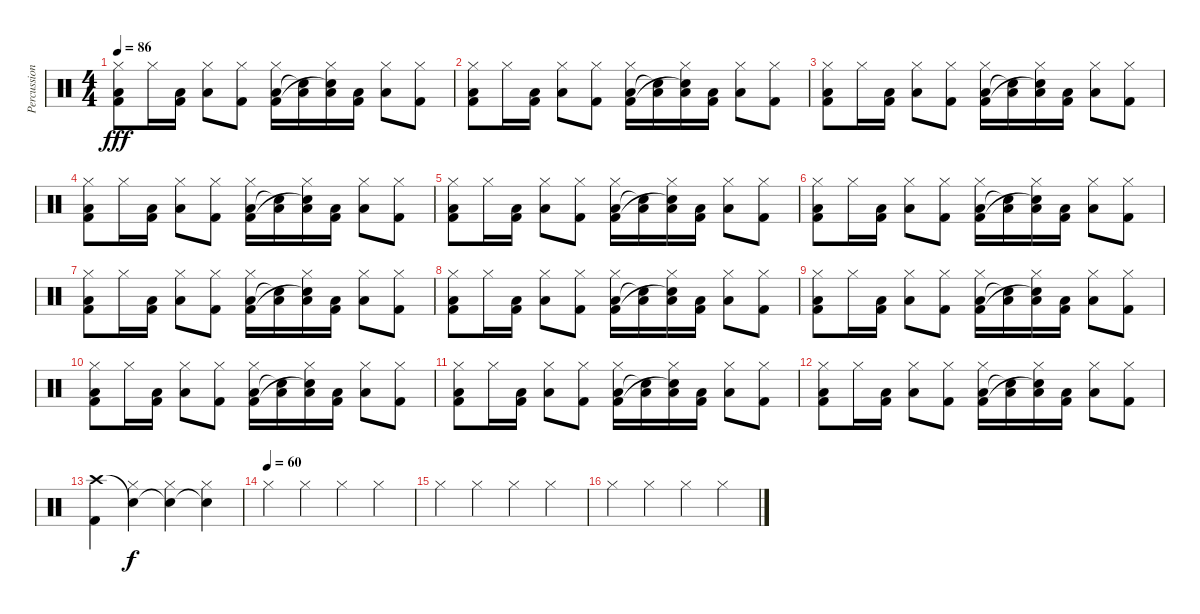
\track ("Percussion" "Percussion") {instrument percussion}
\staff {score}
\articulation defaults
\ts (4 4)
\tempo 86
\clef neutral
\ks c
("Hi-Hat (closed)" "Low Tom (hit)" "Kick (hit) 2").8{dy fff} "Hi-Hat (closed)".16 ("Low Tom (hit)" "Kick (hit) 2").16 ("Hi-Hat (closed)" "Low Tom (hit)").8 ("Hi-Hat (closed)" "Kick (hit) 2").8 ("Hi-Hat (closed)" "Low Tom (hit)" "Kick (hit) 2").16 ("Low Tom (hit)" "Snare (hit)"{t}).16 ("Hi-Hat (closed)" "Low Tom (hit)" "Snare (hit)"{t}).16 ("Low Tom (hit)" "Kick (hit) 2").16 ("Hi-Hat (closed)" "Low Tom (hit)").8 ("Hi-Hat (closed)" "Kick (hit) 2").8 |
("Hi-Hat (closed)" "Low Tom (hit)" "Kick (hit) 2").8 "Hi-Hat (closed)".16 ("Low Tom (hit)" "Kick (hit) 2").16 ("Hi-Hat (closed)" "Low Tom (hit)").8 ("Hi-Hat (closed)" "Kick (hit) 2").8 ("Hi-Hat (closed)" "Low Tom (hit)" "Kick (hit) 2").16 ("Low Tom (hit)" "Snare (hit)"{t}).16 ("Hi-Hat (closed)" "Low Tom (hit)" "Snare (hit)"{t}).16 ("Low Tom (hit)" "Kick (hit) 2").16 ("Hi-Hat (closed)" "Low Tom (hit)").8 ("Hi-Hat (closed)" "Kick (hit) 2").8 |
("Hi-Hat (closed)" "Low Tom (hit)" "Kick (hit) 2").8 "Hi-Hat (closed)".16 ("Low Tom (hit)" "Kick (hit) 2").16 ("Hi-Hat (closed)" "Low Tom (hit)").8 ("Hi-Hat (closed)" "Kick (hit) 2").8 ("Hi-Hat (closed)" "Low Tom (hit)" "Kick (hit) 2").16 ("Low Tom (hit)" "Snare (hit)"{t}).16 ("Hi-Hat (closed)" "Low Tom (hit)" "Snare (hit)"{t}).16 ("Low Tom (hit)" "Kick (hit) 2").16 ("Hi-Hat (closed)" "Low Tom (hit)").8 ("Hi-Hat (closed)" "Kick (hit) 2").8 |
("Hi-Hat (closed)" "Low Tom (hit)" "Kick (hit) 2").8 "Hi-Hat (closed)".16 ("Low Tom (hit)" "Kick (hit) 2").16 ("Hi-Hat (closed)" "Low Tom (hit)").8 ("Hi-Hat (closed)" "Kick (hit) 2").8 ("Hi-Hat (closed)" "Low Tom (hit)" "Kick (hit) 2").16 ("Low Tom (hit)" "Snare (hit)"{t}).16 ("Hi-Hat (closed)" "Low Tom (hit)" "Snare (hit)"{t}).16 ("Low Tom (hit)" "Kick (hit) 2").16 ("Hi-Hat (closed)" "Low Tom (hit)").8 ("Hi-Hat (closed)" "Kick (hit) 2").8 |
("Hi-Hat (closed)" "Low Tom (hit)" "Kick (hit) 2").8 "Hi-Hat (closed)".16 ("Low Tom (hit)" "Kick (hit) 2").16 ("Hi-Hat (closed)" "Low Tom (hit)").8 ("Hi-Hat (closed)" "Kick (hit) 2").8 ("Hi-Hat (closed)" "Low Tom (hit)" "Kick (hit) 2").16 ("Low Tom (hit)" "Snare (hit)"{t}).16 ("Hi-Hat (closed)" "Low Tom (hit)" "Snare (hit)"{t}).16 ("Low Tom (hit)" "Kick (hit) 2").16 ("Hi-Hat (closed)" "Low Tom (hit)").8 ("Hi-Hat (closed)" "Kick (hit) 2").8 |
("Hi-Hat (closed)" "Low Tom (hit)" "Kick (hit) 2").8 "Hi-Hat (closed)".16 ("Low Tom (hit)" "Kick (hit) 2").16 ("Hi-Hat (closed)" "Low Tom (hit)").8 ("Hi-Hat (closed)" "Kick (hit) 2").8 ("Hi-Hat (closed)" "Low Tom (hit)" "Kick (hit) 2").16 ("Low Tom (hit)" "Snare (hit)"{t}).16 ("Hi-Hat (closed)" "Low Tom (hit)" "Snare (hit)"{t}).16 ("Low Tom (hit)" "Kick (hit) 2").16 ("Hi-Hat (closed)" "Low Tom (hit)").8 ("Hi-Hat (closed)" "Kick (hit) 2").8 |
("Hi-Hat (closed)" "Low Tom (hit)" "Kick (hit) 2").8 "Hi-Hat (closed)".16 ("Low Tom (hit)" "Kick (hit) 2").16 ("Hi-Hat (closed)" "Low Tom (hit)").8 ("Hi-Hat (closed)" "Kick (hit) 2").8 ("Hi-Hat (closed)" "Low Tom (hit)" "Kick (hit) 2").16 ("Low Tom (hit)" "Snare (hit)"{t}).16 ("Hi-Hat (closed)" "Low Tom (hit)" "Snare (hit)"{t}).16 ("Low Tom (hit)" "Kick (hit) 2").16 ("Hi-Hat (closed)" "Low Tom (hit)").8 ("Hi-Hat (closed)" "Kick (hit) 2").8 |
("Hi-Hat (closed)" "Low Tom (hit)" "Kick (hit) 2").8 "Hi-Hat (closed)".16 ("Low Tom (hit)" "Kick (hit) 2").16 ("Hi-Hat (closed)" "Low Tom (hit)").8 ("Hi-Hat (closed)" "Kick (hit) 2").8 ("Hi-Hat (closed)" "Low Tom (hit)" "Kick (hit) 2").16 ("Low Tom (hit)" "Snare (hit)"{t}).16 ("Hi-Hat (closed)" "Low Tom (hit)" "Snare (hit)"{t}).16 ("Low Tom (hit)" "Kick (hit) 2").16 ("Hi-Hat (closed)" "Low Tom (hit)").8 ("Hi-Hat (closed)" "Kick (hit) 2").8 |
("Hi-Hat (closed)" "Low Tom (hit)" "Kick (hit) 2").8 "Hi-Hat (closed)".16 ("Low Tom (hit)" "Kick (hit) 2").16 ("Hi-Hat (closed)" "Low Tom (hit)").8 ("Hi-Hat (closed)" "Kick (hit) 2").8 ("Hi-Hat (closed)" "Low Tom (hit)" "Kick (hit) 2").16 ("Low Tom (hit)" "Snare (hit)"{t}).16 ("Hi-Hat (closed)" "Low Tom (hit)" "Snare (hit)"{t}).16 ("Low Tom (hit)" "Kick (hit) 2").16 ("Hi-Hat (closed)" "Low Tom (hit)").8 ("Hi-Hat (closed)" "Kick (hit) 2").8 |
("Hi-Hat (closed)" "Low Tom (hit)" "Kick (hit) 2").8 "Hi-Hat (closed)".16 ("Low Tom (hit)" "Kick (hit) 2").16 ("Hi-Hat (closed)" "Low Tom (hit)").8 ("Hi-Hat (closed)" "Kick (hit) 2").8 ("Hi-Hat (closed)" "Low Tom (hit)" "Kick (hit) 2").16 ("Low Tom (hit)" "Snare (hit)"{t}).16 ("Hi-Hat (closed)" "Low Tom (hit)" "Snare (hit)"{t}).16 ("Low Tom (hit)" "Kick (hit) 2").16 ("Hi-Hat (closed)" "Low Tom (hit)").8 ("Hi-Hat (closed)" "Kick (hit) 2").8 |
("Hi-Hat (closed)" "Low Tom (hit)" "Kick (hit) 2").8 "Hi-Hat (closed)".16 ("Low Tom (hit)" "Kick (hit) 2").16 ("Hi-Hat (closed)" "Low Tom (hit)").8 ("Hi-Hat (closed)" "Kick (hit) 2").8 ("Hi-Hat (closed)" "Low Tom (hit)" "Kick (hit) 2").16 ("Low Tom (hit)" "Snare (hit)"{t}).16 ("Hi-Hat (closed)" "Low Tom (hit)" "Snare (hit)"{t}).16 ("Low Tom (hit)" "Kick (hit) 2").16 ("Hi-Hat (closed)" "Low Tom (hit)").8 ("Hi-Hat (closed)" "Kick (hit) 2").8 |
("Hi-Hat (closed)" "Low Tom (hit)" "Kick (hit) 2").8 "Hi-Hat (closed)".16 ("Low Tom (hit)" "Kick (hit) 2").16 ("Hi-Hat (closed)" "Low Tom (hit)").8 ("Hi-Hat (closed)" "Kick (hit) 2").8 ("Hi-Hat (closed)" "Low Tom (hit)" "Kick (hit) 2").16 ("Low Tom (hit)" "Snare (hit)"{t}).16 ("Hi-Hat (closed)" "Low Tom (hit)" "Snare (hit)"{t}).16 ("Low Tom (hit)" "Kick (hit) 2").16 ("Hi-Hat (closed)" "Low Tom (hit)").8 ("Hi-Hat (closed)" "Kick (hit) 2").8 |
("Crash high (hit)" "Kick (hit) 2").4 ("Snare (hit)"{t} "Hi-Hat (closed)").4{dy f} ("Snare (hit)"{t} "Hi-Hat (closed)").4 ("Snare (hit)"{t} "Hi-Hat (closed)").4 |
\tempo (60)
"Hi-Hat (closed)".4 "Hi-Hat (closed)".4 "Hi-Hat (closed)".4 "Hi-Hat (closed)".4 |
"Hi-Hat (closed)".4 "Hi-Hat (closed)".4 "Hi-Hat (closed)".4 "Hi-Hat (closed)".4 |
"Hi-Hat (closed)".4 "Hi-Hat (closed)".4 "Hi-Hat (closed)".4 "Hi-Hat (closed)".4
